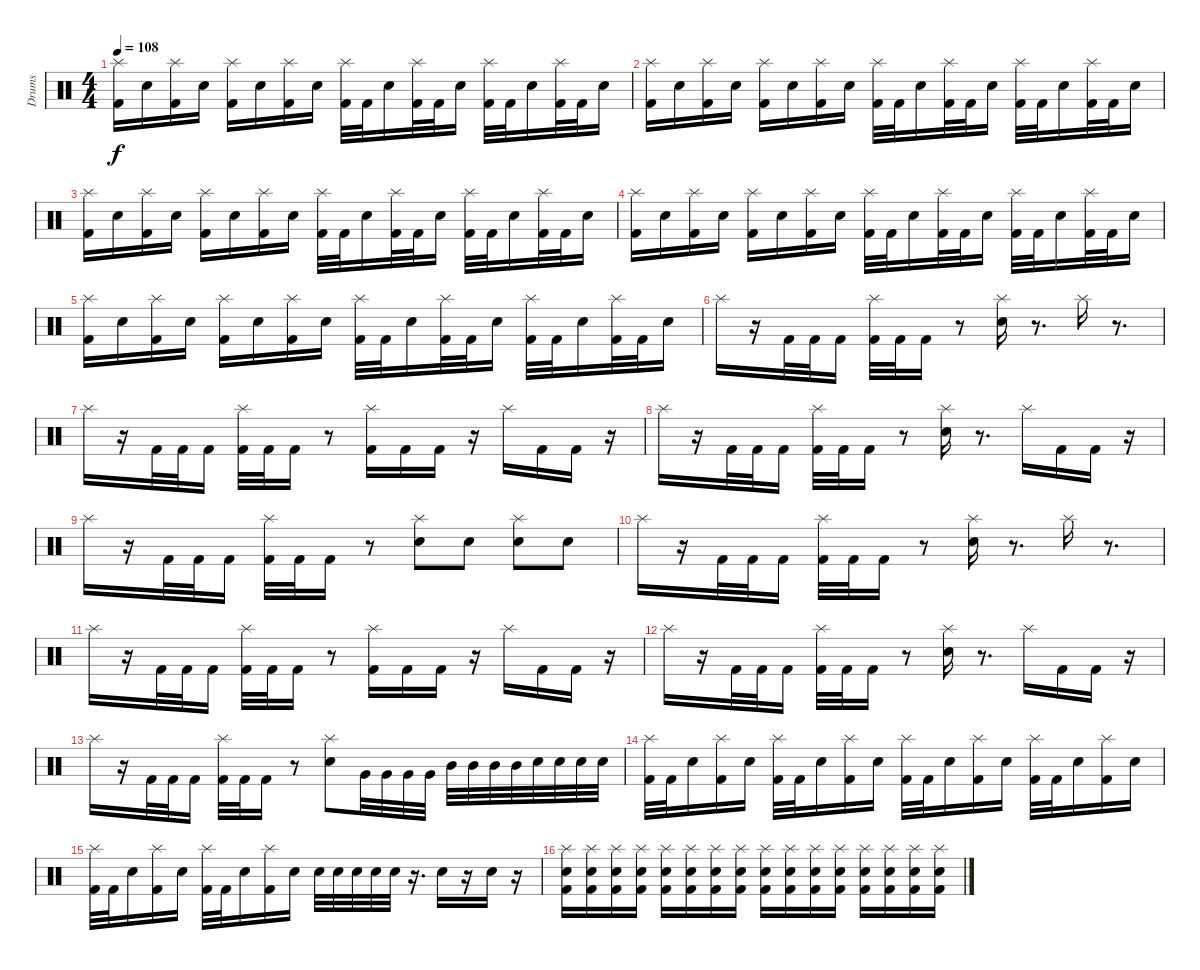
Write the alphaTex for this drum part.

\track ("Drums" "Drums") {instrument percussion}
\staff {score}
\articulation defaults
\ts (4 4)
\tempo 108
\clef neutral
\ks c
("Splash (hit)" "Kick (hit) 2").16{dy f} "Snare (hit) 2".16 ("Splash (hit)" "Kick (hit) 2").16 "Snare (hit) 2".16 ("Splash (hit)" "Kick (hit) 2").16 "Snare (hit) 2".16 ("Splash (hit)" "Kick (hit) 2").16 "Snare (hit) 2".16 ("Splash (hit)" "Kick (hit) 2").32 "Kick (hit) 2".32 "Snare (hit) 2".16 ("Splash (hit)" "Kick (hit) 2").32 "Kick (hit) 2".32 "Snare (hit) 2".16 ("Splash (hit)" "Kick (hit) 2").32 "Kick (hit) 2".32 "Snare (hit) 2".16 ("Splash (hit)" "Kick (hit) 2").32 "Kick (hit) 2".32 "Snare (hit) 2".16 |
("Splash (hit)" "Kick (hit) 2").16 "Snare (hit) 2".16 ("Splash (hit)" "Kick (hit) 2").16 "Snare (hit) 2".16 ("Splash (hit)" "Kick (hit) 2").16 "Snare (hit) 2".16 ("Splash (hit)" "Kick (hit) 2").16 "Snare (hit) 2".16 ("Splash (hit)" "Kick (hit) 2").32 "Kick (hit) 2".32 "Snare (hit) 2".16 ("Splash (hit)" "Kick (hit) 2").32 "Kick (hit) 2".32 "Snare (hit) 2".16 ("Splash (hit)" "Kick (hit) 2").32 "Kick (hit) 2".32 "Snare (hit) 2".16 ("Splash (hit)" "Kick (hit) 2").32 "Kick (hit) 2".32 "Snare (hit) 2".16 |
("Splash (hit)" "Kick (hit) 2").16 "Snare (hit) 2".16 ("Splash (hit)" "Kick (hit) 2").16 "Snare (hit) 2".16 ("Splash (hit)" "Kick (hit) 2").16 "Snare (hit) 2".16 ("Splash (hit)" "Kick (hit) 2").16 "Snare (hit) 2".16 ("Splash (hit)" "Kick (hit) 2").32 "Kick (hit) 2".32 "Snare (hit) 2".16 ("Splash (hit)" "Kick (hit) 2").32 "Kick (hit) 2".32 "Snare (hit) 2".16 ("Splash (hit)" "Kick (hit) 2").32 "Kick (hit) 2".32 "Snare (hit) 2".16 ("Splash (hit)" "Kick (hit) 2").32 "Kick (hit) 2".32 "Snare (hit) 2".16 |
("Splash (hit)" "Kick (hit) 2").16 "Snare (hit) 2".16 ("Splash (hit)" "Kick (hit) 2").16 "Snare (hit) 2".16 ("Splash (hit)" "Kick (hit) 2").16 "Snare (hit) 2".16 ("Splash (hit)" "Kick (hit) 2").16 "Snare (hit) 2".16 ("Splash (hit)" "Kick (hit) 2").32 "Kick (hit) 2".32 "Snare (hit) 2".16 ("Splash (hit)" "Kick (hit) 2").32 "Kick (hit) 2".32 "Snare (hit) 2".16 ("Splash (hit)" "Kick (hit) 2").32 "Kick (hit) 2".32 "Snare (hit) 2".16 ("Splash (hit)" "Kick (hit) 2").32 "Kick (hit) 2".32 "Snare (hit) 2".16 |
("Splash (hit)" "Kick (hit) 2").16 "Snare (hit) 2".16 ("Splash (hit)" "Kick (hit) 2").16 "Snare (hit) 2".16 ("Splash (hit)" "Kick (hit) 2").16 "Snare (hit) 2".16 ("Splash (hit)" "Kick (hit) 2").16 "Snare (hit) 2".16 ("Splash (hit)" "Kick (hit) 2").32 "Kick (hit) 2".32 "Snare (hit) 2".16 ("Splash (hit)" "Kick (hit) 2").32 "Kick (hit) 2".32 "Snare (hit) 2".16 ("Splash (hit)" "Kick (hit) 2").32 "Kick (hit) 2".32 "Snare (hit) 2".16 ("Splash (hit)" "Kick (hit) 2").32 "Kick (hit) 2".32 "Snare (hit) 2".16 |
"Splash (hit)".16 r.16 "Kick (hit) 2".32 "Kick (hit) 2".32 "Kick (hit) 2".16 ("Splash (hit)" "Kick (hit) 2").32 "Kick (hit) 2".32 "Kick (hit) 2".16 r.8 ("Splash (hit)" "Snare (hit) 2").16 r.8{d} "Splash (hit)".16 r.8{d} |
"Splash (hit)".16 r.16 "Kick (hit) 2".32 "Kick (hit) 2".32 "Kick (hit) 2".16 ("Splash (hit)" "Kick (hit) 2").32 "Kick (hit) 2".32 "Kick (hit) 2".16 r.8 ("Splash (hit)" "Kick (hit) 2").16 "Kick (hit) 2".16 "Kick (hit) 2".16 r.16 "Splash (hit)".16 "Kick (hit) 2".16 "Kick (hit) 2".16 r.16 |
"Splash (hit)".16 r.16 "Kick (hit) 2".32 "Kick (hit) 2".32 "Kick (hit) 2".16 ("Splash (hit)" "Kick (hit) 2").32 "Kick (hit) 2".32 "Kick (hit) 2".16 r.8 ("Splash (hit)" "Snare (hit) 2").16 r.8{d} "Splash (hit)".16 "Kick (hit) 2".16 "Kick (hit) 2".16 r.16 |
"Splash (hit)".16 r.16 "Kick (hit) 2".32 "Kick (hit) 2".32 "Kick (hit) 2".16 ("Splash (hit)" "Kick (hit) 2").32 "Kick (hit) 2".32 "Kick (hit) 2".16 r.8 ("Splash (hit)" "Snare (hit) 2").8 "Snare (hit) 2".8 ("Splash (hit)" "Snare (hit) 2").8 "Snare (hit) 2".8 |
"Splash (hit)".16 r.16 "Kick (hit) 2".32 "Kick (hit) 2".32 "Kick (hit) 2".16 ("Splash (hit)" "Kick (hit) 2").32 "Kick (hit) 2".32 "Kick (hit) 2".16 r.8 ("Splash (hit)" "Snare (hit) 2").16 r.8{d} "Splash (hit)".16 r.8{d} |
"Splash (hit)".16 r.16 "Kick (hit) 2".32 "Kick (hit) 2".32 "Kick (hit) 2".16 ("Splash (hit)" "Kick (hit) 2").32 "Kick (hit) 2".32 "Kick (hit) 2".16 r.8 ("Splash (hit)" "Kick (hit) 2").16 "Kick (hit) 2".16 "Kick (hit) 2".16 r.16 "Splash (hit)".16 "Kick (hit) 2".16 "Kick (hit) 2".16 r.16 |
"Splash (hit)".16 r.16 "Kick (hit) 2".32 "Kick (hit) 2".32 "Kick (hit) 2".16 ("Splash (hit)" "Kick (hit) 2").32 "Kick (hit) 2".32 "Kick (hit) 2".16 r.8 ("Splash (hit)" "Snare (hit) 2").16 r.8{d} "Splash (hit)".16 "Kick (hit) 2".16 "Kick (hit) 2".16 r.16 |
"Splash (hit)".16 r.16 "Kick (hit) 2".32 "Kick (hit) 2".32 "Kick (hit) 2".16 ("Splash (hit)" "Kick (hit) 2").32 "Kick (hit) 2".32 "Kick (hit) 2".16 r.8 ("Splash (hit)" "Snare (hit) 2").8 "Very Low Tom (hit)".32 "Very Low Tom (hit)".32 "Very Low Tom (hit)".32 "Very Low Tom (hit)".32 "Mid Tom (hit)".32 "Mid Tom (hit)".32 "Mid Tom (hit)".32 "Mid Tom (hit)".32 "Snare (hit) 2".32 "Snare (hit) 2".32 "Snare (hit) 2".32 "Snare (hit) 2".32 |
("Splash (hit)" "Kick (hit) 2").32 "Kick (hit) 2".32 "Snare (hit) 2".16 ("Splash (hit)" "Kick (hit) 2").16 "Snare (hit) 2".16 ("Splash (hit)" "Kick (hit) 2").32 "Kick (hit) 2".32 "Snare (hit) 2".16 ("Splash (hit)" "Kick (hit) 2").16 "Snare (hit) 2".16 ("Splash (hit)" "Kick (hit) 2").32 "Kick (hit) 2".32 "Snare (hit) 2".16 ("Splash (hit)" "Kick (hit) 2").16 "Snare (hit) 2".16 ("Splash (hit)" "Kick (hit) 2").32 "Kick (hit) 2".32 "Snare (hit) 2".16 ("Splash (hit)" "Kick (hit) 2").16 "Snare (hit) 2".16 |
("Splash (hit)" "Kick (hit) 2").32 "Kick (hit) 2".32 "Snare (hit) 2".16 ("Splash (hit)" "Kick (hit) 2").16 "Snare (hit) 2".16 ("Splash (hit)" "Kick (hit) 2").32 "Kick (hit) 2".32 "Snare (hit) 2".16 ("Splash (hit)" "Kick (hit) 2").16 "Snare (hit) 2".16 "Snare (hit) 2".32 "Snare (hit) 2".32 "Snare (hit) 2".32 "Snare (hit) 2".32 "Snare (hit) 2".32 r.16{d} "Snare (hit) 2".16 r.16 "Snare (hit) 2".16 r.16 |
("Splash (hit)" "Snare (hit) 2" "Kick (hit) 2").16 ("Splash (hit)" "Snare (hit) 2" "Kick (hit) 2").16 ("Splash (hit)" "Snare (hit) 2" "Kick (hit) 2").16 ("Splash (hit)" "Snare (hit) 2" "Kick (hit) 2").16 ("Splash (hit)" "Snare (hit) 2" "Kick (hit) 2").16 ("Splash (hit)" "Snare (hit) 2" "Kick (hit) 2").16 ("Splash (hit)" "Snare (hit) 2" "Kick (hit) 2").16 ("Splash (hit)" "Snare (hit) 2" "Kick (hit) 2").16 ("Splash (hit)" "Snare (hit) 2" "Kick (hit) 2").16 ("Splash (hit)" "Snare (hit) 2" "Kick (hit) 2").16 ("Splash (hit)" "Snare (hit) 2" "Kick (hit) 2").16 ("Splash (hit)" "Snare (hit) 2" "Kick (hit) 2").16 ("Splash (hit)" "Snare (hit) 2" "Kick (hit) 2").16 ("Splash (hit)" "Snare (hit) 2" "Kick (hit) 2").16 ("Splash (hit)" "Snare (hit) 2" "Kick (hit) 2").16 ("Splash (hit)" "Snare (hit) 2" "Kick (hit) 2").16
